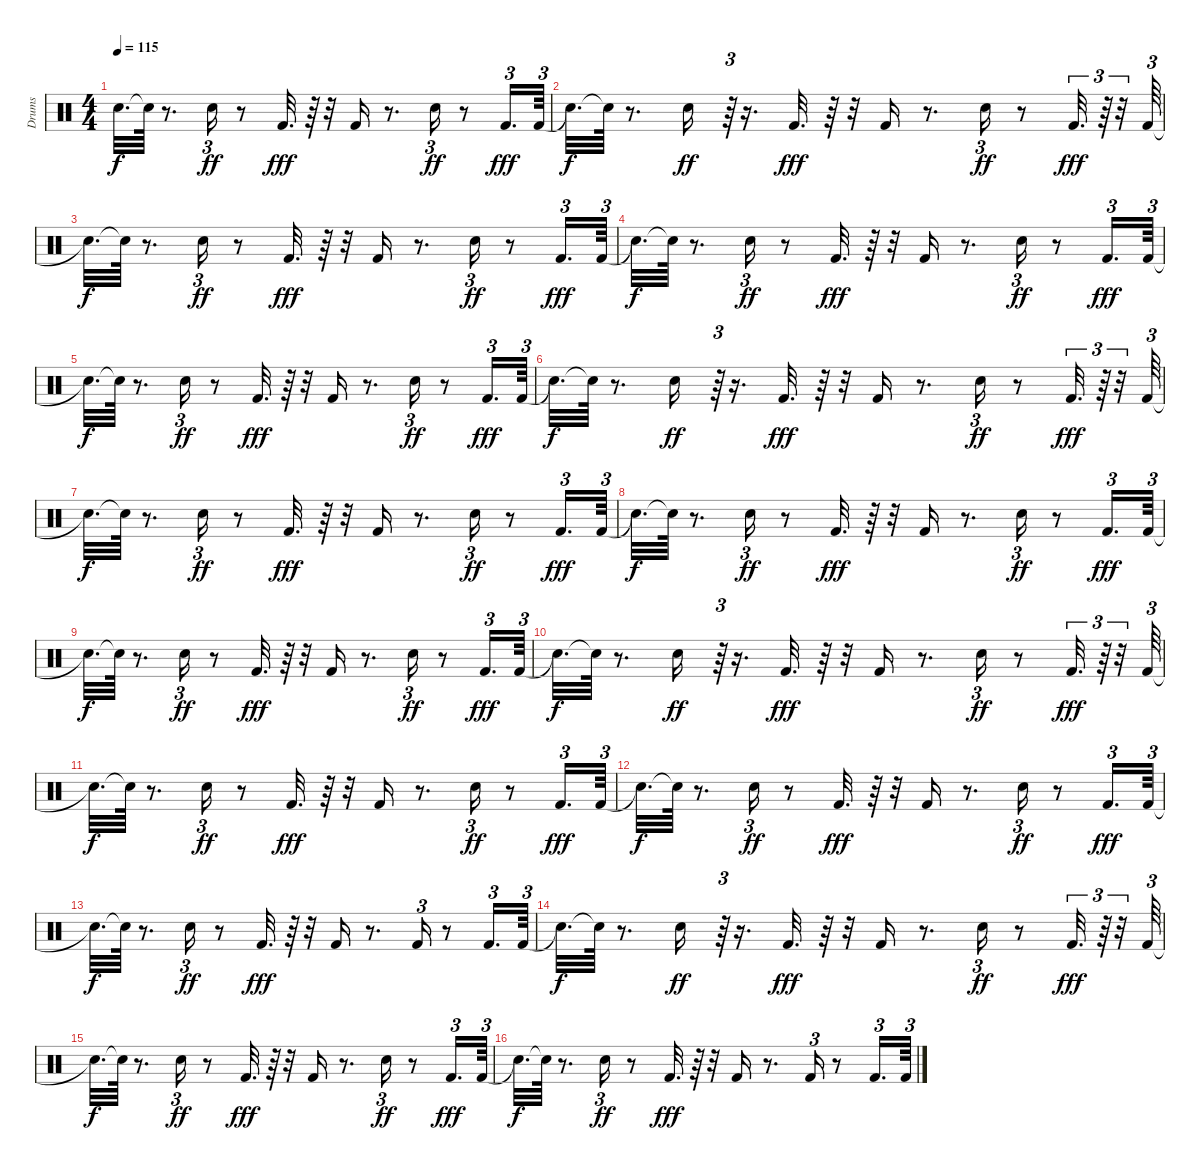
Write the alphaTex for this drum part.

\track ("Drums" "Drums") {instrument percussion}
\staff {score}
\articulation defaults
\ts (4 4)
\tempo 115
\clef neutral
\ks c "Snare (hit)"{t}.32{d dy f} "Snare (hit)"{t}.64
r.8{d} "Electric Snare (hit)".16{tu (3 2) dy ff} r.8 "Kick (hit) 2".32{d dy fff} r.64 r.32 "Kick (hit) 2".16 r.8{d} "Electric Snare (hit)".16{tu (3 2) dy ff} r.8 "Kick (hit) 2".16{d tu (3 2) dy fff} "Kick (hit) 2".64{tu (3 2)} |
"Snare (hit)"{t}.32{d dy f} "Snare (hit)"{t}.64 r.8{d} "Electric Snare (hit)".16{dy ff} r.64{tu (3 2)} r.16{d} "Kick (hit) 2".32{d dy fff} r.64 r.32 "Kick (hit) 2".16 r.8{d} "Electric Snare (hit)".16{tu (3 2) dy ff} r.8 "Kick (hit) 2".32{d tu (3 2) dy fff} r.64{tu (3 2)} r.32{tu (3 2)} "Kick (hit) 2".64{tu (3 2)} |
"Snare (hit)"{t}.32{d dy f} "Snare (hit)"{t}.64 r.8{d} "Electric Snare (hit)".16{tu (3 2) dy ff} r.8 "Kick (hit) 2".32{d dy fff} r.64 r.32 "Kick (hit) 2".16 r.8{d} "Electric Snare (hit)".16{tu (3 2) dy ff} r.8 "Kick (hit) 2".16{d tu (3 2) dy fff} "Kick (hit) 2".64{tu (3 2)} |
"Snare (hit)"{t}.32{d dy f} "Snare (hit)"{t}.64 r.8{d} "Electric Snare (hit)".16{tu (3 2) dy ff} r.8 "Kick (hit) 2".32{d dy fff} r.64 r.32 "Kick (hit) 2".16 r.8{d} "Electric Snare (hit)".16{tu (3 2) dy ff} r.8 "Kick (hit) 2".16{d tu (3 2) dy fff} "Kick (hit) 2".64{tu (3 2)} |
"Snare (hit)"{t}.32{d dy f} "Snare (hit)"{t}.64 r.8{d} "Electric Snare (hit)".16{tu (3 2) dy ff} r.8 "Kick (hit) 2".32{d dy fff} r.64 r.32 "Kick (hit) 2".16 r.8{d} "Electric Snare (hit)".16{tu (3 2) dy ff} r.8 "Kick (hit) 2".16{d tu (3 2) dy fff} "Kick (hit) 2".64{tu (3 2)} |
"Snare (hit)"{t}.32{d dy f} "Snare (hit)"{t}.64 r.8{d} "Electric Snare (hit)".16{dy ff} r.64{tu (3 2)} r.16{d} "Kick (hit) 2".32{d dy fff} r.64 r.32 "Kick (hit) 2".16 r.8{d} "Electric Snare (hit)".16{tu (3 2) dy ff} r.8 "Kick (hit) 2".32{d tu (3 2) dy fff} r.64{tu (3 2)} r.32{tu (3 2)} "Kick (hit) 2".64{tu (3 2)} |
"Snare (hit)"{t}.32{d dy f} "Snare (hit)"{t}.64 r.8{d} "Electric Snare (hit)".16{tu (3 2) dy ff} r.8 "Kick (hit) 2".32{d dy fff} r.64 r.32 "Kick (hit) 2".16 r.8{d} "Electric Snare (hit)".16{tu (3 2) dy ff} r.8 "Kick (hit) 2".16{d tu (3 2) dy fff} "Kick (hit) 2".64{tu (3 2)} |
"Snare (hit)"{t}.32{d dy f} "Snare (hit)"{t}.64 r.8{d} "Electric Snare (hit)".16{tu (3 2) dy ff} r.8 "Kick (hit) 2".32{d dy fff} r.64 r.32 "Kick (hit) 2".16 r.8{d} "Electric Snare (hit)".16{tu (3 2) dy ff} r.8 "Kick (hit) 2".16{d tu (3 2) dy fff} "Kick (hit) 2".64{tu (3 2)} |
"Snare (hit)"{t}.32{d dy f} "Snare (hit)"{t}.64 r.8{d} "Electric Snare (hit)".16{tu (3 2) dy ff} r.8 "Kick (hit) 2".32{d dy fff} r.64 r.32 "Kick (hit) 2".16 r.8{d} "Electric Snare (hit)".16{tu (3 2) dy ff} r.8 "Kick (hit) 2".16{d tu (3 2) dy fff} "Kick (hit) 2".64{tu (3 2)} |
"Snare (hit)"{t}.32{d dy f} "Snare (hit)"{t}.64 r.8{d} "Electric Snare (hit)".16{dy ff} r.64{tu (3 2)} r.16{d} "Kick (hit) 2".32{d dy fff} r.64 r.32 "Kick (hit) 2".16 r.8{d} "Electric Snare (hit)".16{tu (3 2) dy ff} r.8 "Kick (hit) 2".32{d tu (3 2) dy fff} r.64{tu (3 2)} r.32{tu (3 2)} "Kick (hit) 2".64{tu (3 2)} |
"Snare (hit)"{t}.32{d dy f} "Snare (hit)"{t}.64 r.8{d} "Electric Snare (hit)".16{tu (3 2) dy ff} r.8 "Kick (hit) 2".32{d dy fff} r.64 r.32 "Kick (hit) 2".16 r.8{d} "Electric Snare (hit)".16{tu (3 2) dy ff} r.8 "Kick (hit) 2".16{d tu (3 2) dy fff} "Kick (hit) 2".64{tu (3 2)} |
"Snare (hit)"{t}.32{d dy f} "Snare (hit)"{t}.64 r.8{d} "Electric Snare (hit)".16{tu (3 2) dy ff} r.8 "Kick (hit) 2".32{d dy fff} r.64 r.32 "Kick (hit) 2".16 r.8{d} "Electric Snare (hit)".16{tu (3 2) dy ff} r.8 "Kick (hit) 2".16{d tu (3 2) dy fff} "Kick (hit) 2".64{tu (3 2)} |
"Snare (hit)"{t}.32{d dy f} "Snare (hit)"{t}.64 r.8{d} "Electric Snare (hit)".16{tu (3 2) dy ff} r.8 "Kick (hit) 2".32{d dy fff} r.64 r.32 "Kick (hit) 2".16 r.8{d} "Kick (hit) 2".16{tu (3 2)} r.8 "Kick (hit) 2".16{d tu (3 2)} "Kick (hit) 2".64{tu (3 2)} |
"Snare (hit)"{t}.32{d dy f} "Snare (hit)"{t}.64 r.8{d} "Electric Snare (hit)".16{dy ff} r.64{tu (3 2)} r.16{d} "Kick (hit) 2".32{d dy fff} r.64 r.32 "Kick (hit) 2".16 r.8{d} "Electric Snare (hit)".16{tu (3 2) dy ff} r.8 "Kick (hit) 2".32{d tu (3 2) dy fff} r.64{tu (3 2)} r.32{tu (3 2)} "Kick (hit) 2".64{tu (3 2)} |
"Snare (hit)"{t}.32{d dy f} "Snare (hit)"{t}.64 r.8{d} "Electric Snare (hit)".16{tu (3 2) dy ff} r.8 "Kick (hit) 2".32{d dy fff} r.64 r.32 "Kick (hit) 2".16 r.8{d} "Electric Snare (hit)".16{tu (3 2) dy ff} r.8 "Kick (hit) 2".16{d tu (3 2) dy fff} "Kick (hit) 2".64{tu (3 2)} |
"Snare (hit)"{t}.32{d dy f} "Snare (hit)"{t}.64 r.8{d} "Electric Snare (hit)".16{tu (3 2) dy ff} r.8 "Kick (hit) 2".32{d dy fff} r.64 r.32 "Kick (hit) 2".16 r.8{d} "Kick (hit) 2".16{tu (3 2)} r.8 "Kick (hit) 2".16{d tu (3 2)} "Kick (hit) 2".64{tu (3 2)}
